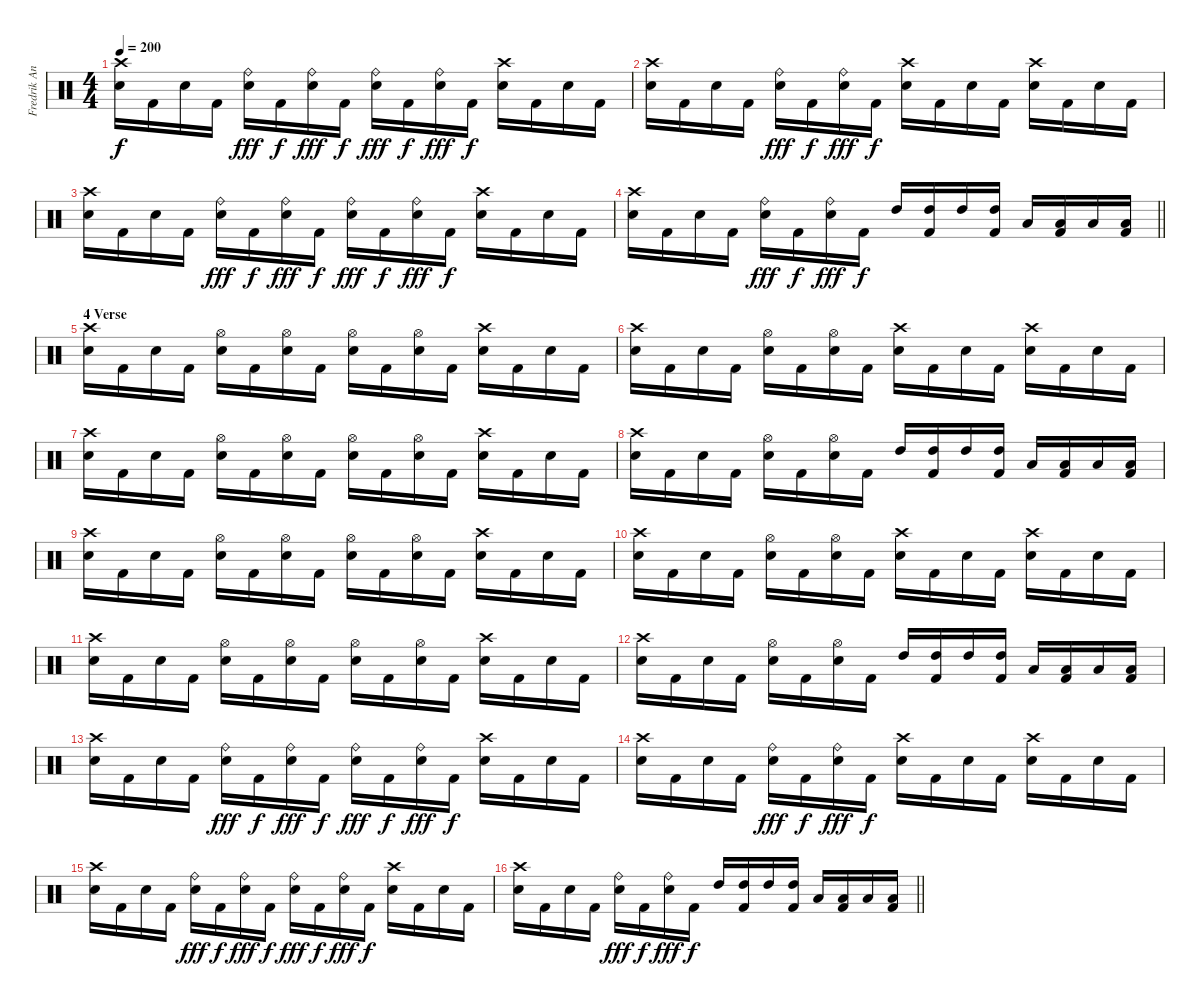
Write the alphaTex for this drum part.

\track ("Fredrik Andersson " "Fredrik An") {instrument percussion}
\staff {score}
\articulation defaults
\ts (4 4)
\tempo 200
\clef neutral
\ks c
("Crash high (hit)" "Snare (hit) 2").16{dy f} "Kick (hit) 2".16 "Snare (hit) 2".16 "Kick (hit) 2".16 ("Ride (bell)" "Snare (hit) 2").16{dy fff} "Kick (hit) 2".16{dy f} ("Ride (bell)" "Snare (hit) 2").16{dy fff} "Kick (hit) 2".16{dy f} ("Ride (bell)" "Snare (hit) 2").16{dy fff} "Kick (hit) 2".16{dy f} ("Ride (bell)" "Snare (hit) 2").16{dy fff} "Kick (hit) 2".16{dy f} ("Crash high (hit)" "Snare (hit) 2").16 "Kick (hit) 2".16 "Snare (hit) 2".16 "Kick (hit) 2".16 |
("Crash high (hit)" "Snare (hit) 2").16 "Kick (hit) 2".16 "Snare (hit) 2".16 "Kick (hit) 2".16 ("Ride (bell)" "Snare (hit) 2").16{dy fff} "Kick (hit) 2".16{dy f} ("Ride (bell)" "Snare (hit) 2").16{dy fff} "Kick (hit) 2".16{dy f} ("Crash high (hit)" "Snare (hit) 2").16 "Kick (hit) 2".16 "Snare (hit) 2".16 "Kick (hit) 2".16 ("Crash high (hit)" "Snare (hit) 2").16 "Kick (hit) 2".16 "Snare (hit) 2".16 "Kick (hit) 2".16 |
("Crash high (hit)" "Snare (hit) 2").16 "Kick (hit) 2".16 "Snare (hit) 2".16 "Kick (hit) 2".16 ("Ride (bell)" "Snare (hit) 2").16{dy fff} "Kick (hit) 2".16{dy f} ("Ride (bell)" "Snare (hit) 2").16{dy fff} "Kick (hit) 2".16{dy f} ("Ride (bell)" "Snare (hit) 2").16{dy fff} "Kick (hit) 2".16{dy f} ("Ride (bell)" "Snare (hit) 2").16{dy fff} "Kick (hit) 2".16{dy f} ("Crash high (hit)" "Snare (hit) 2").16 "Kick (hit) 2".16 "Snare (hit) 2".16 "Kick (hit) 2".16 |
\barLineRight lightlight
("Crash high (hit)" "Snare (hit) 2").16 "Kick (hit) 2".16 "Snare (hit) 2".16 "Kick (hit) 2".16 ("Ride (bell)" "Snare (hit) 2").16{dy fff} "Kick (hit) 2".16{dy f} ("Ride (bell)" "Snare (hit) 2").16{dy fff} "Kick (hit) 2".16{dy f} "High Tom (hit)".16 ("High Tom (hit)" "Kick (hit) 2").16 "High Tom (hit)".16 ("High Tom (hit)" "Kick (hit) 2").16 "Low Tom (hit)".16 ("Low Tom (hit)" "Kick (hit) 2").16 "Low Tom (hit)".16 ("Low Tom (hit)" "Kick (hit) 2").16 |
\section ("" "4 Verse")
("Crash high (hit)" "Snare (hit) 2").16 "Kick (hit) 2".16 "Snare (hit) 2".16 "Kick (hit) 2".16 ("Hi-Hat (open)" "Snare (hit) 2").16 "Kick (hit) 2".16 ("Hi-Hat (open)" "Snare (hit) 2").16 "Kick (hit) 2".16 ("Hi-Hat (open)" "Snare (hit) 2").16 "Kick (hit) 2".16 ("Hi-Hat (open)" "Snare (hit) 2").16 "Kick (hit) 2".16 ("Crash high (hit)" "Snare (hit) 2").16 "Kick (hit) 2".16 "Snare (hit) 2".16 "Kick (hit) 2".16 |
("Crash high (hit)" "Snare (hit) 2").16 "Kick (hit) 2".16 "Snare (hit) 2".16 "Kick (hit) 2".16 ("Hi-Hat (open)" "Snare (hit) 2").16 "Kick (hit) 2".16 ("Hi-Hat (open)" "Snare (hit) 2").16 "Kick (hit) 2".16 ("Crash high (hit)" "Snare (hit) 2").16 "Kick (hit) 2".16 "Snare (hit) 2".16 "Kick (hit) 2".16 ("Crash high (hit)" "Snare (hit) 2").16 "Kick (hit) 2".16 "Snare (hit) 2".16 "Kick (hit) 2".16 |
("Crash high (hit)" "Snare (hit) 2").16 "Kick (hit) 2".16 "Snare (hit) 2".16 "Kick (hit) 2".16 ("Hi-Hat (open)" "Snare (hit) 2").16 "Kick (hit) 2".16 ("Hi-Hat (open)" "Snare (hit) 2").16 "Kick (hit) 2".16 ("Hi-Hat (open)" "Snare (hit) 2").16 "Kick (hit) 2".16 ("Hi-Hat (open)" "Snare (hit) 2").16 "Kick (hit) 2".16 ("Crash high (hit)" "Snare (hit) 2").16 "Kick (hit) 2".16 "Snare (hit) 2".16 "Kick (hit) 2".16 |
("Crash high (hit)" "Snare (hit) 2").16 "Kick (hit) 2".16 "Snare (hit) 2".16 "Kick (hit) 2".16 ("Hi-Hat (open)" "Snare (hit) 2").16 "Kick (hit) 2".16 ("Hi-Hat (open)" "Snare (hit) 2").16 "Kick (hit) 2".16 "High Tom (hit)".16 ("High Tom (hit)" "Kick (hit) 2").16 "High Tom (hit)".16 ("High Tom (hit)" "Kick (hit) 2").16 "Low Tom (hit)".16 ("Low Tom (hit)" "Kick (hit) 2").16 "Low Tom (hit)".16 ("Low Tom (hit)" "Kick (hit) 2").16 |
("Crash high (hit)" "Snare (hit) 2").16 "Kick (hit) 2".16 "Snare (hit) 2".16 "Kick (hit) 2".16 ("Hi-Hat (open)" "Snare (hit) 2").16 "Kick (hit) 2".16 ("Hi-Hat (open)" "Snare (hit) 2").16 "Kick (hit) 2".16 ("Hi-Hat (open)" "Snare (hit) 2").16 "Kick (hit) 2".16 ("Hi-Hat (open)" "Snare (hit) 2").16 "Kick (hit) 2".16 ("Crash high (hit)" "Snare (hit) 2").16 "Kick (hit) 2".16 "Snare (hit) 2".16 "Kick (hit) 2".16 |
("Crash high (hit)" "Snare (hit) 2").16 "Kick (hit) 2".16 "Snare (hit) 2".16 "Kick (hit) 2".16 ("Hi-Hat (open)" "Snare (hit) 2").16 "Kick (hit) 2".16 ("Hi-Hat (open)" "Snare (hit) 2").16 "Kick (hit) 2".16 ("Crash high (hit)" "Snare (hit) 2").16 "Kick (hit) 2".16 "Snare (hit) 2".16 "Kick (hit) 2".16 ("Crash high (hit)" "Snare (hit) 2").16 "Kick (hit) 2".16 "Snare (hit) 2".16 "Kick (hit) 2".16 |
("Crash high (hit)" "Snare (hit) 2").16 "Kick (hit) 2".16 "Snare (hit) 2".16 "Kick (hit) 2".16 ("Hi-Hat (open)" "Snare (hit) 2").16 "Kick (hit) 2".16 ("Hi-Hat (open)" "Snare (hit) 2").16 "Kick (hit) 2".16 ("Hi-Hat (open)" "Snare (hit) 2").16 "Kick (hit) 2".16 ("Hi-Hat (open)" "Snare (hit) 2").16 "Kick (hit) 2".16 ("Crash high (hit)" "Snare (hit) 2").16 "Kick (hit) 2".16 "Snare (hit) 2".16 "Kick (hit) 2".16 |
("Crash high (hit)" "Snare (hit) 2").16 "Kick (hit) 2".16 "Snare (hit) 2".16 "Kick (hit) 2".16 ("Hi-Hat (open)" "Snare (hit) 2").16 "Kick (hit) 2".16 ("Hi-Hat (open)" "Snare (hit) 2").16 "Kick (hit) 2".16 "High Tom (hit)".16 ("High Tom (hit)" "Kick (hit) 2").16 "High Tom (hit)".16 ("High Tom (hit)" "Kick (hit) 2").16 "Low Tom (hit)".16 ("Low Tom (hit)" "Kick (hit) 2").16 "Low Tom (hit)".16 ("Low Tom (hit)" "Kick (hit) 2").16 |
("Crash high (hit)" "Snare (hit) 2").16 "Kick (hit) 2".16 "Snare (hit) 2".16 "Kick (hit) 2".16 ("Ride (bell)" "Snare (hit) 2").16{dy fff} "Kick (hit) 2".16{dy f} ("Ride (bell)" "Snare (hit) 2").16{dy fff} "Kick (hit) 2".16{dy f} ("Ride (bell)" "Snare (hit) 2").16{dy fff} "Kick (hit) 2".16{dy f} ("Ride (bell)" "Snare (hit) 2").16{dy fff} "Kick (hit) 2".16{dy f} ("Crash high (hit)" "Snare (hit) 2").16 "Kick (hit) 2".16 "Snare (hit) 2".16 "Kick (hit) 2".16 |
("Crash high (hit)" "Snare (hit) 2").16 "Kick (hit) 2".16 "Snare (hit) 2".16 "Kick (hit) 2".16 ("Ride (bell)" "Snare (hit) 2").16{dy fff} "Kick (hit) 2".16{dy f} ("Ride (bell)" "Snare (hit) 2").16{dy fff} "Kick (hit) 2".16{dy f} ("Crash high (hit)" "Snare (hit) 2").16 "Kick (hit) 2".16 "Snare (hit) 2".16 "Kick (hit) 2".16 ("Crash high (hit)" "Snare (hit) 2").16 "Kick (hit) 2".16 "Snare (hit) 2".16 "Kick (hit) 2".16 |
("Crash high (hit)" "Snare (hit) 2").16 "Kick (hit) 2".16 "Snare (hit) 2".16 "Kick (hit) 2".16 ("Ride (bell)" "Snare (hit) 2").16{dy fff} "Kick (hit) 2".16{dy f} ("Ride (bell)" "Snare (hit) 2").16{dy fff} "Kick (hit) 2".16{dy f} ("Ride (bell)" "Snare (hit) 2").16{dy fff} "Kick (hit) 2".16{dy f} ("Ride (bell)" "Snare (hit) 2").16{dy fff} "Kick (hit) 2".16{dy f} ("Crash high (hit)" "Snare (hit) 2").16 "Kick (hit) 2".16 "Snare (hit) 2".16 "Kick (hit) 2".16 |
\barLineRight lightlight
("Crash high (hit)" "Snare (hit) 2").16 "Kick (hit) 2".16 "Snare (hit) 2".16 "Kick (hit) 2".16 ("Ride (bell)" "Snare (hit) 2").16{dy fff} "Kick (hit) 2".16{dy f} ("Ride (bell)" "Snare (hit) 2").16{dy fff} "Kick (hit) 2".16{dy f} "High Tom (hit)".16 ("High Tom (hit)" "Kick (hit) 2").16 "High Tom (hit)".16 ("High Tom (hit)" "Kick (hit) 2").16 "Low Tom (hit)".16 ("Low Tom (hit)" "Kick (hit) 2").16 "Low Tom (hit)".16 ("Low Tom (hit)" "Kick (hit) 2").16
